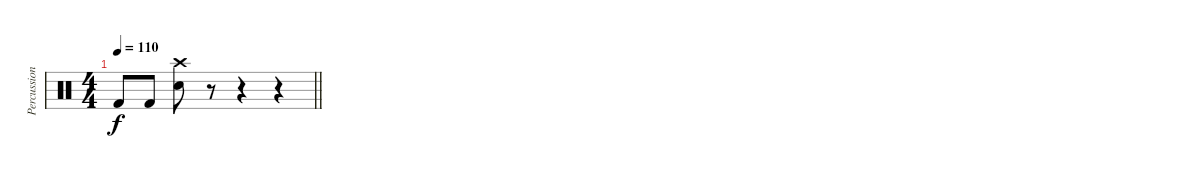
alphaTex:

\track ("Percussion" "Percussion") {instrument percussion}
\staff {score}
\articulation defaults
\ts (4 4)
\tempo 110
\clef neutral
\barLineRight lightlight
\ks c "Kick (hit) 2".8{dy f} "Kick (hit) 2".8
("Crash high (hit)" "Snare (hit) 2").8 r.8 r.4 r.4
